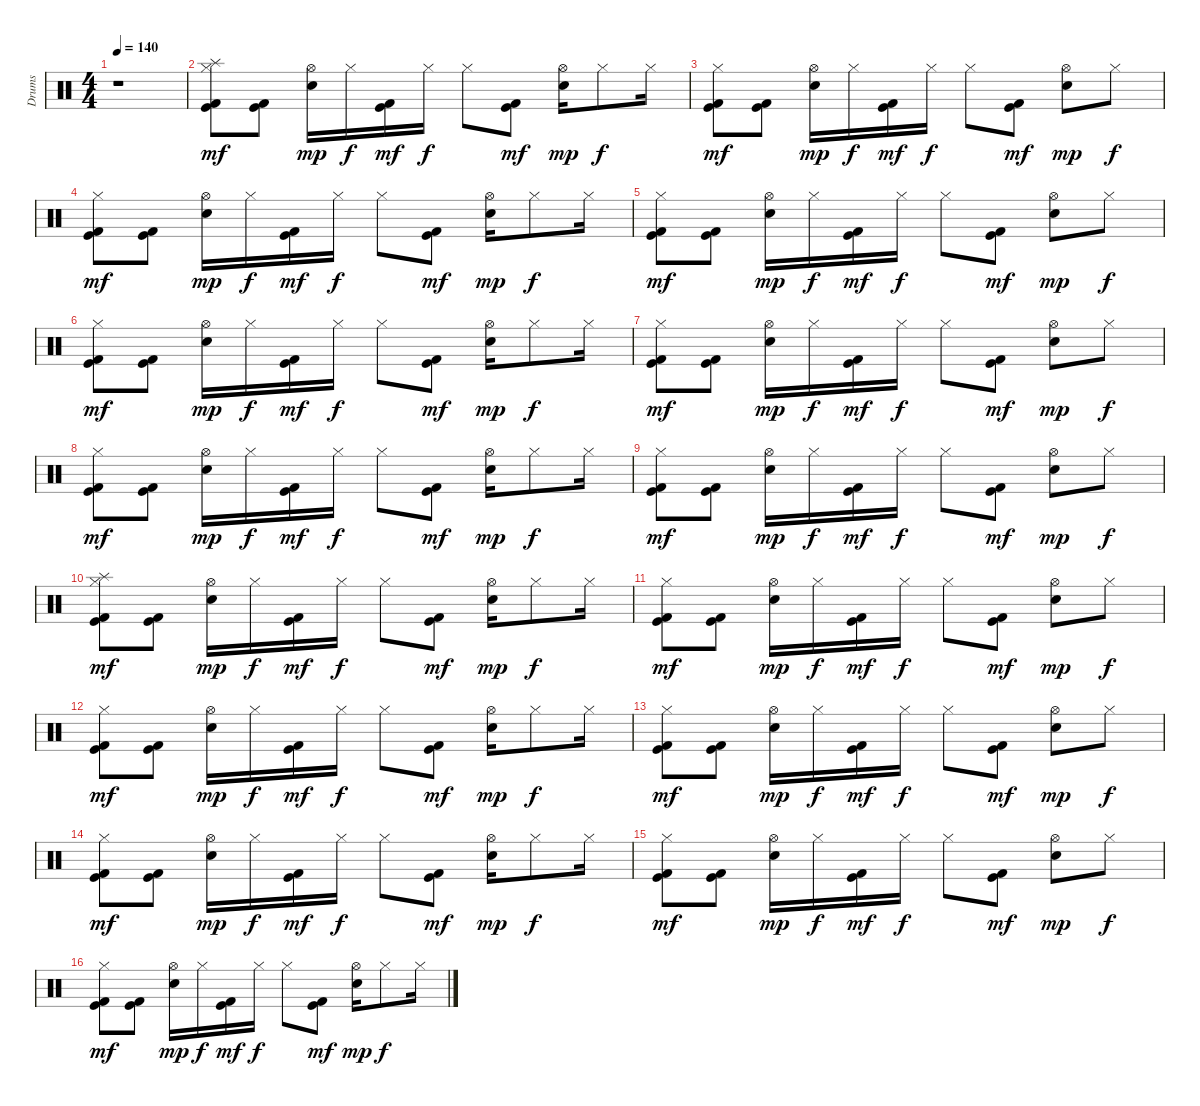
\track ("Drums" "Drums") {instrument percussion}
\staff {score}
\articulation defaults
\ts (4 4)
\tempo 140
\clef neutral
\ks c
r.1{dy mf} |
("Splash (hit)" "Hi-Hat (closed)" "Kick (hit) 2" "Kick (hit)").8 ("Kick (hit) 2" "Kick (hit)").8 ("Hi-Hat (open)" "Snare (hit) 2").16{dy mp} "Hi-Hat (closed)".16{dy f} ("Kick (hit) 2" "Kick (hit)").16{dy mf} "Hi-Hat (closed)".16{dy f} "Hi-Hat (closed)".8 ("Kick (hit) 2" "Kick (hit)").8{dy mf} ("Hi-Hat (open)" "Snare (hit) 2").16{dy mp} "Hi-Hat (closed)".8{dy f} "Hi-Hat (closed)".16 |
("Hi-Hat (closed)" "Kick (hit) 2" "Kick (hit)").8{dy mf} ("Kick (hit) 2" "Kick (hit)").8 ("Hi-Hat (open)" "Snare (hit) 2").16{dy mp} "Hi-Hat (closed)".16{dy f} ("Kick (hit) 2" "Kick (hit)").16{dy mf} "Hi-Hat (closed)".16{dy f} "Hi-Hat (closed)".8 ("Kick (hit) 2" "Kick (hit)").8{dy mf} ("Hi-Hat (open)" "Snare (hit) 2").8{dy mp} "Hi-Hat (closed)".8{dy f} |
("Hi-Hat (closed)" "Kick (hit) 2" "Kick (hit)").8{dy mf} ("Kick (hit) 2" "Kick (hit)").8 ("Hi-Hat (open)" "Snare (hit) 2").16{dy mp} "Hi-Hat (closed)".16{dy f} ("Kick (hit) 2" "Kick (hit)").16{dy mf} "Hi-Hat (closed)".16{dy f} "Hi-Hat (closed)".8 ("Kick (hit) 2" "Kick (hit)").8{dy mf} ("Hi-Hat (open)" "Snare (hit) 2").16{dy mp} "Hi-Hat (closed)".8{dy f} "Hi-Hat (closed)".16 |
("Hi-Hat (closed)" "Kick (hit) 2" "Kick (hit)").8{dy mf} ("Kick (hit) 2" "Kick (hit)").8 ("Hi-Hat (open)" "Snare (hit) 2").16{dy mp} "Hi-Hat (closed)".16{dy f} ("Kick (hit) 2" "Kick (hit)").16{dy mf} "Hi-Hat (closed)".16{dy f} "Hi-Hat (closed)".8 ("Kick (hit) 2" "Kick (hit)").8{dy mf} ("Hi-Hat (open)" "Snare (hit) 2").8{dy mp} "Hi-Hat (closed)".8{dy f} |
("Hi-Hat (closed)" "Kick (hit) 2" "Kick (hit)").8{dy mf} ("Kick (hit) 2" "Kick (hit)").8 ("Hi-Hat (open)" "Snare (hit) 2").16{dy mp} "Hi-Hat (closed)".16{dy f} ("Kick (hit) 2" "Kick (hit)").16{dy mf} "Hi-Hat (closed)".16{dy f} "Hi-Hat (closed)".8 ("Kick (hit) 2" "Kick (hit)").8{dy mf} ("Hi-Hat (open)" "Snare (hit) 2").16{dy mp} "Hi-Hat (closed)".8{dy f} "Hi-Hat (closed)".16 |
("Hi-Hat (closed)" "Kick (hit) 2" "Kick (hit)").8{dy mf} ("Kick (hit) 2" "Kick (hit)").8 ("Hi-Hat (open)" "Snare (hit) 2").16{dy mp} "Hi-Hat (closed)".16{dy f} ("Kick (hit) 2" "Kick (hit)").16{dy mf} "Hi-Hat (closed)".16{dy f} "Hi-Hat (closed)".8 ("Kick (hit) 2" "Kick (hit)").8{dy mf} ("Hi-Hat (open)" "Snare (hit) 2").8{dy mp} "Hi-Hat (closed)".8{dy f} |
("Hi-Hat (closed)" "Kick (hit) 2" "Kick (hit)").8{dy mf} ("Kick (hit) 2" "Kick (hit)").8 ("Hi-Hat (open)" "Snare (hit) 2").16{dy mp} "Hi-Hat (closed)".16{dy f} ("Kick (hit) 2" "Kick (hit)").16{dy mf} "Hi-Hat (closed)".16{dy f} "Hi-Hat (closed)".8 ("Kick (hit) 2" "Kick (hit)").8{dy mf} ("Hi-Hat (open)" "Snare (hit) 2").16{dy mp} "Hi-Hat (closed)".8{dy f} "Hi-Hat (closed)".16 |
("Hi-Hat (closed)" "Kick (hit) 2" "Kick (hit)").8{dy mf} ("Kick (hit) 2" "Kick (hit)").8 ("Hi-Hat (open)" "Snare (hit) 2").16{dy mp} "Hi-Hat (closed)".16{dy f} ("Kick (hit) 2" "Kick (hit)").16{dy mf} "Hi-Hat (closed)".16{dy f} "Hi-Hat (closed)".8 ("Kick (hit) 2" "Kick (hit)").8{dy mf} ("Hi-Hat (open)" "Snare (hit) 2").8{dy mp} "Hi-Hat (closed)".8{dy f} |
("Splash (hit)" "Hi-Hat (closed)" "Kick (hit) 2" "Kick (hit)").8{dy mf} ("Kick (hit) 2" "Kick (hit)").8 ("Hi-Hat (open)" "Snare (hit) 2").16{dy mp} "Hi-Hat (closed)".16{dy f} ("Kick (hit) 2" "Kick (hit)").16{dy mf} "Hi-Hat (closed)".16{dy f} "Hi-Hat (closed)".8 ("Kick (hit) 2" "Kick (hit)").8{dy mf} ("Hi-Hat (open)" "Snare (hit) 2").16{dy mp} "Hi-Hat (closed)".8{dy f} "Hi-Hat (closed)".16 |
("Hi-Hat (closed)" "Kick (hit) 2" "Kick (hit)").8{dy mf} ("Kick (hit) 2" "Kick (hit)").8 ("Hi-Hat (open)" "Snare (hit) 2").16{dy mp} "Hi-Hat (closed)".16{dy f} ("Kick (hit) 2" "Kick (hit)").16{dy mf} "Hi-Hat (closed)".16{dy f} "Hi-Hat (closed)".8 ("Kick (hit) 2" "Kick (hit)").8{dy mf} ("Hi-Hat (open)" "Snare (hit) 2").8{dy mp} "Hi-Hat (closed)".8{dy f} |
("Hi-Hat (closed)" "Kick (hit) 2" "Kick (hit)").8{dy mf} ("Kick (hit) 2" "Kick (hit)").8 ("Hi-Hat (open)" "Snare (hit) 2").16{dy mp} "Hi-Hat (closed)".16{dy f} ("Kick (hit) 2" "Kick (hit)").16{dy mf} "Hi-Hat (closed)".16{dy f} "Hi-Hat (closed)".8 ("Kick (hit) 2" "Kick (hit)").8{dy mf} ("Hi-Hat (open)" "Snare (hit) 2").16{dy mp} "Hi-Hat (closed)".8{dy f} "Hi-Hat (closed)".16 |
("Hi-Hat (closed)" "Kick (hit) 2" "Kick (hit)").8{dy mf} ("Kick (hit) 2" "Kick (hit)").8 ("Hi-Hat (open)" "Snare (hit) 2").16{dy mp} "Hi-Hat (closed)".16{dy f} ("Kick (hit) 2" "Kick (hit)").16{dy mf} "Hi-Hat (closed)".16{dy f} "Hi-Hat (closed)".8 ("Kick (hit) 2" "Kick (hit)").8{dy mf} ("Hi-Hat (open)" "Snare (hit) 2").8{dy mp} "Hi-Hat (closed)".8{dy f} |
("Hi-Hat (closed)" "Kick (hit) 2" "Kick (hit)").8{dy mf} ("Kick (hit) 2" "Kick (hit)").8 ("Hi-Hat (open)" "Snare (hit) 2").16{dy mp} "Hi-Hat (closed)".16{dy f} ("Kick (hit) 2" "Kick (hit)").16{dy mf} "Hi-Hat (closed)".16{dy f} "Hi-Hat (closed)".8 ("Kick (hit) 2" "Kick (hit)").8{dy mf} ("Hi-Hat (open)" "Snare (hit) 2").16{dy mp} "Hi-Hat (closed)".8{dy f} "Hi-Hat (closed)".16 |
("Hi-Hat (closed)" "Kick (hit) 2" "Kick (hit)").8{dy mf} ("Kick (hit) 2" "Kick (hit)").8 ("Hi-Hat (open)" "Snare (hit) 2").16{dy mp} "Hi-Hat (closed)".16{dy f} ("Kick (hit) 2" "Kick (hit)").16{dy mf} "Hi-Hat (closed)".16{dy f} "Hi-Hat (closed)".8 ("Kick (hit) 2" "Kick (hit)").8{dy mf} ("Hi-Hat (open)" "Snare (hit) 2").8{dy mp} "Hi-Hat (closed)".8{dy f} |
("Hi-Hat (closed)" "Kick (hit) 2" "Kick (hit)").8{dy mf} ("Kick (hit) 2" "Kick (hit)").8 ("Hi-Hat (open)" "Snare (hit) 2").16{dy mp} "Hi-Hat (closed)".16{dy f} ("Kick (hit) 2" "Kick (hit)").16{dy mf} "Hi-Hat (closed)".16{dy f} "Hi-Hat (closed)".8 ("Kick (hit) 2" "Kick (hit)").8{dy mf} ("Hi-Hat (open)" "Snare (hit) 2").16{dy mp} "Hi-Hat (closed)".8{dy f} "Hi-Hat (closed)".16
